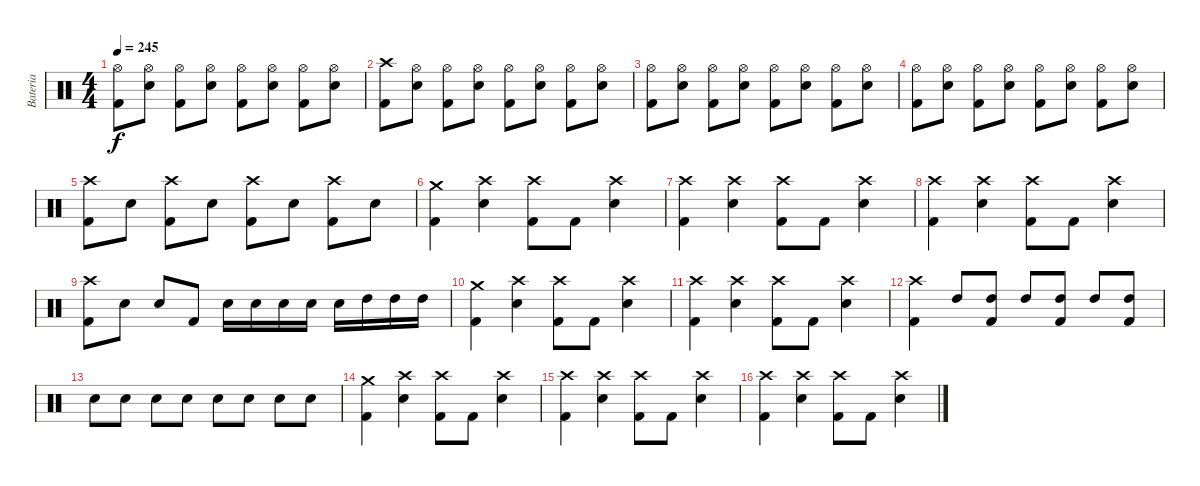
\track ("Bateria" "Bateria") {instrument percussion}
\staff {score}
\articulation defaults
\ts (4 4)
\tempo 245
\clef neutral
\ks c
("Hi-Hat (open)" "Kick (hit) 2").8{dy f} ("Hi-Hat (open)" "Electric Snare (hit)").8 ("Hi-Hat (open)" "Kick (hit) 2").8 ("Hi-Hat (open)" "Electric Snare (hit)").8 ("Hi-Hat (open)" "Kick (hit) 2").8 ("Hi-Hat (open)" "Electric Snare (hit)").8 ("Hi-Hat (open)" "Kick (hit) 2").8 ("Hi-Hat (open)" "Electric Snare (hit)").8 |
("Crash high (hit)" "Kick (hit) 2").8 ("Hi-Hat (open)" "Electric Snare (hit)").8 ("Hi-Hat (open)" "Kick (hit) 2").8 ("Hi-Hat (open)" "Electric Snare (hit)").8 ("Hi-Hat (open)" "Kick (hit) 2").8 ("Hi-Hat (open)" "Electric Snare (hit)").8 ("Hi-Hat (open)" "Kick (hit) 2").8 ("Hi-Hat (open)" "Electric Snare (hit)").8 |
("Hi-Hat (open)" "Kick (hit) 2").8 ("Hi-Hat (open)" "Electric Snare (hit)").8 ("Hi-Hat (open)" "Kick (hit) 2").8 ("Hi-Hat (open)" "Electric Snare (hit)").8 ("Hi-Hat (open)" "Kick (hit) 2").8 ("Hi-Hat (open)" "Electric Snare (hit)").8 ("Hi-Hat (open)" "Kick (hit) 2").8 ("Hi-Hat (open)" "Electric Snare (hit)").8 |
("Hi-Hat (open)" "Kick (hit) 2").8 ("Hi-Hat (open)" "Electric Snare (hit)").8 ("Hi-Hat (open)" "Kick (hit) 2").8 ("Hi-Hat (open)" "Electric Snare (hit)").8 ("Hi-Hat (open)" "Kick (hit) 2").8 ("Hi-Hat (open)" "Electric Snare (hit)").8 ("Hi-Hat (open)" "Kick (hit) 2").8 ("Hi-Hat (open)" "Electric Snare (hit)").8 |
("Crash high (hit)" "Kick (hit) 2").8 "Electric Snare (hit)".8 ("Crash high (hit)" "Kick (hit) 2").8 "Electric Snare (hit)".8 ("Crash high (hit)" "Kick (hit) 2").8 "Electric Snare (hit)".8 ("Crash high (hit)" "Kick (hit) 2").8 "Electric Snare (hit)".8 |
("Crash medium (hit)" "Kick (hit) 2").4 ("Crash high (hit)" "Electric Snare (hit)").4 ("Crash high (hit)" "Kick (hit) 2").8 "Kick (hit) 2".8 ("Crash high (hit)" "Electric Snare (hit)").4 |
("Crash high (hit)" "Kick (hit) 2").4 ("Crash high (hit)" "Electric Snare (hit)").4 ("Crash high (hit)" "Kick (hit) 2").8 "Kick (hit) 2".8 ("Crash high (hit)" "Electric Snare (hit)").4 |
("Crash high (hit)" "Kick (hit) 2").4 ("Crash high (hit)" "Electric Snare (hit)").4 ("Crash high (hit)" "Kick (hit) 2").8 "Kick (hit) 2".8 ("Crash high (hit)" "Electric Snare (hit)").4 |
("Crash high (hit)" "Kick (hit) 2").8 "Electric Snare (hit)".8 "Electric Snare (hit)".8 "Kick (hit) 2".8 "Electric Snare (hit)".16 "Electric Snare (hit)".16 "Electric Snare (hit)".16 "Electric Snare (hit)".16 "Electric Snare (hit)".16 "High Tom (hit)".16 "High Tom (hit)".16 "High Tom (hit)".16 |
("Crash medium (hit)" "Kick (hit) 2").4 ("Crash high (hit)" "Electric Snare (hit)").4 ("Crash high (hit)" "Kick (hit) 2").8 "Kick (hit) 2".8 ("Crash high (hit)" "Electric Snare (hit)").4 |
("Crash high (hit)" "Kick (hit) 2").4 ("Crash high (hit)" "Electric Snare (hit)").4 ("Crash high (hit)" "Kick (hit) 2").8 "Kick (hit) 2".8 ("Crash high (hit)" "Electric Snare (hit)").4 |
("Crash high (hit)" "Kick (hit) 2").4 "High Tom (hit)".8 ("High Tom (hit)" "Kick (hit) 2").8 "High Tom (hit)".8 ("High Tom (hit)" "Kick (hit) 2").8 "High Tom (hit)".8 ("High Tom (hit)" "Kick (hit) 2").8 |
"Electric Snare (hit)".8 "Electric Snare (hit)".8 "Electric Snare (hit)".8 "Electric Snare (hit)".8 "Electric Snare (hit)".8 "Electric Snare (hit)".8 "Electric Snare (hit)".8 "Electric Snare (hit)".8 |
("Crash medium (hit)" "Kick (hit) 2").4 ("Crash high (hit)" "Electric Snare (hit)").4 ("Crash high (hit)" "Kick (hit) 2").8 "Kick (hit) 2".8 ("Crash high (hit)" "Electric Snare (hit)").4 |
("Crash high (hit)" "Kick (hit) 2").4 ("Crash high (hit)" "Electric Snare (hit)").4 ("Crash high (hit)" "Kick (hit) 2").8 "Kick (hit) 2".8 ("Crash high (hit)" "Electric Snare (hit)").4 |
("Crash high (hit)" "Kick (hit) 2").4 ("Crash high (hit)" "Electric Snare (hit)").4 ("Crash high (hit)" "Kick (hit) 2").8 "Kick (hit) 2".8 ("Crash high (hit)" "Electric Snare (hit)").4
